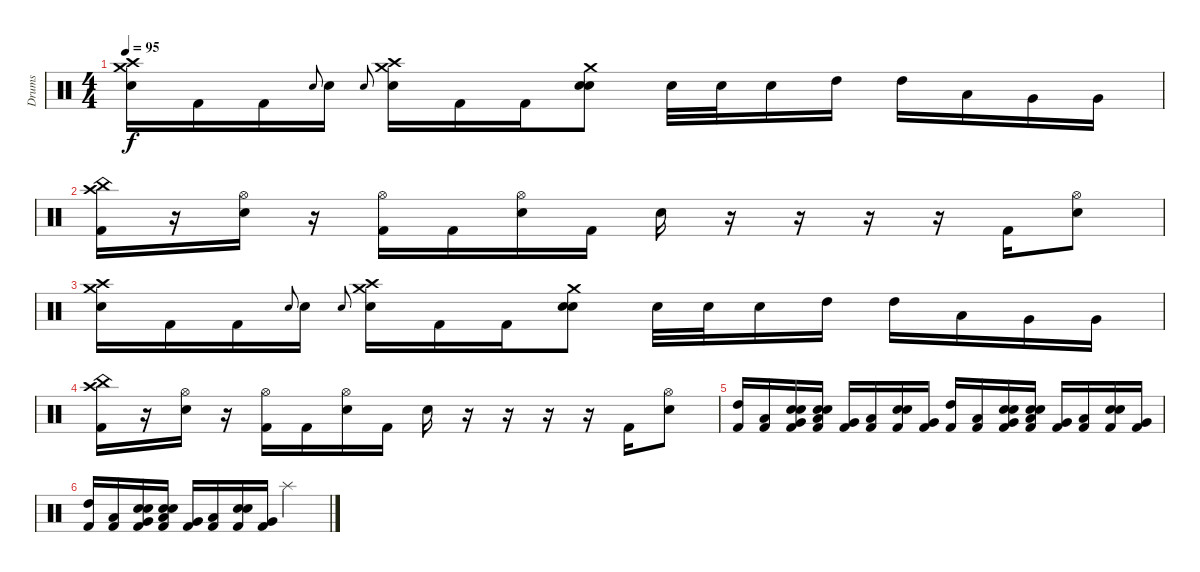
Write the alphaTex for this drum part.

\track ("Drums" "Drums") {instrument percussion}
\staff {score}
\articulation defaults
\ts (4 4)
\tempo 95
\clef neutral
\ks c
("Crash high (hit)" "Crash medium (hit)" "Electric Snare (hit)").16{dy f} "Kick (hit) 2".16 "Kick (hit) 2".16 "Electric Snare (hit)".8{gr onbeat} "Electric Snare (hit)".16 "Electric Snare (hit)".8{gr onbeat} ("Crash high (hit)" "Crash medium (hit)" "Electric Snare (hit)").16 "Kick (hit) 2".16 "Kick (hit) 2".16 ("Electric Snare (hit)" "Crash medium (hit)" "Electric Snare (hit)").8 "Electric Snare (hit)".32 "Electric Snare (hit)".32 "Electric Snare (hit)".16 "High Tom (hit)".16 "High Tom (hit)".16 "Low Tom (hit)".16 "Very Low Tom (hit)".16 "Very Low Tom (hit)".16 |
("Crash high (hit)" "China (hit)" "Kick (hit) 2").16 r.16 ("Hi-Hat (open)" "Electric Snare (hit)").16 r.16 ("Hi-Hat (open)" "Kick (hit) 2").16 "Kick (hit) 2".16 ("Hi-Hat (open)" "Electric Snare (hit)").16 "Kick (hit) 2".16 "Electric Snare (hit)".16 r.16 r.16 r.16 r.16 "Kick (hit) 2".16 ("Hi-Hat (open)" "Electric Snare (hit)").8 |
("Crash high (hit)" "Crash medium (hit)" "Electric Snare (hit)").16 "Kick (hit) 2".16 "Kick (hit) 2".16 "Electric Snare (hit)".8{gr onbeat} "Electric Snare (hit)".16 "Electric Snare (hit)".8{gr onbeat} ("Crash high (hit)" "Crash medium (hit)" "Electric Snare (hit)").16 "Kick (hit) 2".16 "Kick (hit) 2".16 ("Electric Snare (hit)" "Crash medium (hit)" "Electric Snare (hit)").8 "Electric Snare (hit)".32 "Electric Snare (hit)".32 "Electric Snare (hit)".16 "High Tom (hit)".16 "High Tom (hit)".16 "Low Tom (hit)".16 "Very Low Tom (hit)".16 "Very Low Tom (hit)".16 |
("Crash high (hit)" "China (hit)" "Kick (hit) 2").16 r.16 ("Hi-Hat (open)" "Electric Snare (hit)").16 r.16 ("Hi-Hat (open)" "Kick (hit) 2").16 "Kick (hit) 2".16 ("Hi-Hat (open)" "Electric Snare (hit)").16 "Kick (hit) 2".16 "Electric Snare (hit)".16 r.16 r.16 r.16 r.16 "Kick (hit) 2".16 ("Hi-Hat (open)" "Electric Snare (hit)").8 |
("Kick (hit) 2" "High Tom (hit)").16 ("Kick (hit) 2" "Low Tom (hit)").16 ("Kick (hit) 2" "Electric Snare (hit)" "Very Low Tom (hit)" "Hand Clap (hit)").16 ("Kick (hit) 2" "Electric Snare (hit)" "Low Floor Tom (hit)" "Hand Clap (hit)").16 ("Kick (hit) 2" "Very Low Tom (hit)").16 ("Kick (hit) 2" "Low Tom (hit)").16 ("Kick (hit) 2" "Electric Snare (hit)" "Hand Clap (hit)").16 ("Kick (hit) 2" "Very Low Tom (hit)").16 ("Kick (hit) 2" "High Tom (hit)").16 ("Kick (hit) 2" "Low Tom (hit)").16 ("Kick (hit) 2" "Electric Snare (hit)" "Very Low Tom (hit)" "Hand Clap (hit)").16 ("Kick (hit) 2" "Electric Snare (hit)" "Low Floor Tom (hit)" "Hand Clap (hit)").16 ("Kick (hit) 2" "Very Low Tom (hit)").16 ("Kick (hit) 2" "Low Tom (hit)").16 ("Kick (hit) 2" "Electric Snare (hit)" "Hand Clap (hit)").16 ("Kick (hit) 2" "Very Low Tom (hit)").16 |
("Kick (hit) 2" "High Tom (hit)").16 ("Kick (hit) 2" "Low Tom (hit)").16 ("Kick (hit) 2" "Electric Snare (hit)" "Very Low Tom (hit)" "Hand Clap (hit)").16 ("Kick (hit) 2" "Electric Snare (hit)" "Low Floor Tom (hit)" "Hand Clap (hit)").16 ("Kick (hit) 2" "Very Low Tom (hit)").16 ("Kick (hit) 2" "Low Tom (hit)").16 ("Kick (hit) 2" "Electric Snare (hit)" "Hand Clap (hit)").16 ("Kick (hit) 2" "Very Low Tom (hit)").16 "Splash (hit)".2
